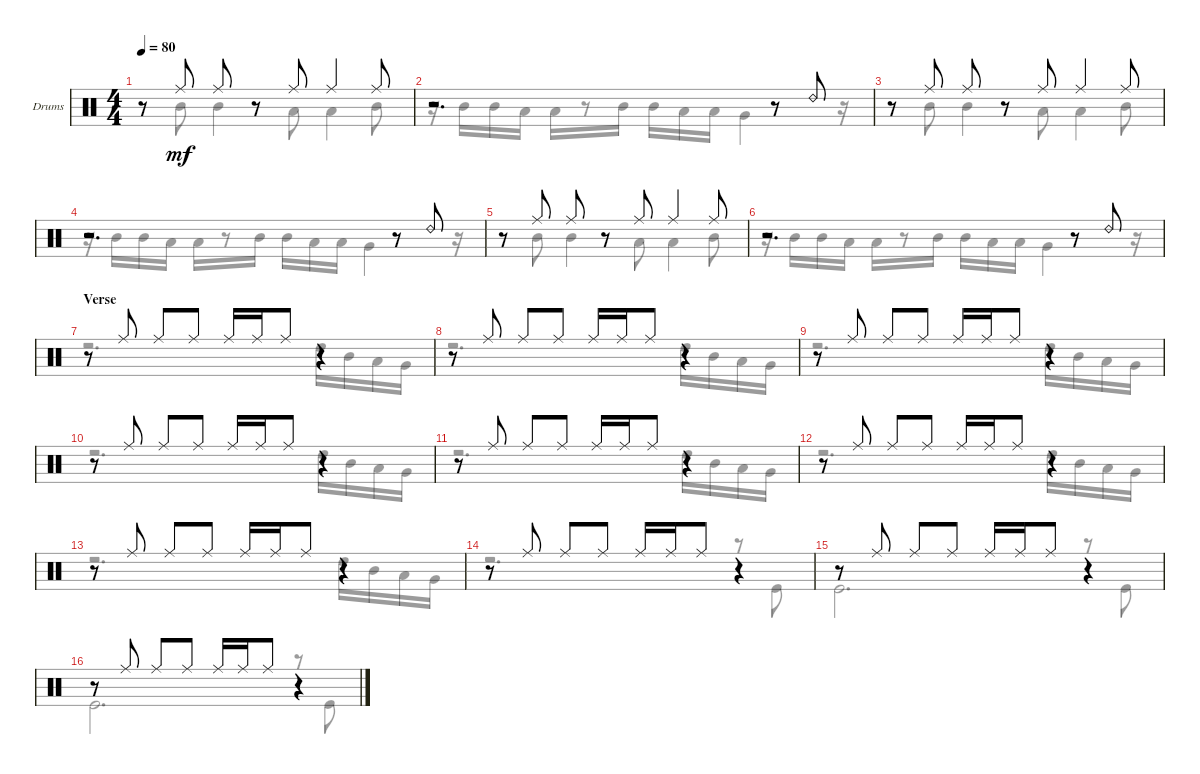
\defaultSystemsLayout 4
\bracketExtendMode groupsimilarinstruments
\firstSystemTrackNameOrientation horizontal
\otherSystemsTrackNameOrientation horizontal
\track ("Drumkit" "Drums") {instrument percussion}
\staff {score}
\articulation defaults
\voice
\ts (4 4)
\tempo 80
\clef neutral
\ks c
r.8{dy mf} "Ride (middle)".8 "Ride (middle)".8 r.8 "Ride (middle)".8 "Ride (middle)".4 "Ride (middle)".8 |
r.2{d} r.8 "Ride (bell) 2".8 |
r.8 "Ride (middle)".8 "Ride (middle)".8 r.8 "Ride (middle)".8 "Ride (middle)".4 "Ride (middle)".8 |
r.2{d} r.8 "Ride (bell) 2".8 |
r.8 "Ride (middle)".8 "Ride (middle)".8 r.8 "Ride (middle)".8 "Ride (middle)".4 "Ride (middle)".8 |
r.2{d} r.8 "Ride (bell) 2".8 |
\section ("" "Verse")
r.8 "Ride (middle)".8 "Ride (middle)".8 "Ride (middle)".8 "Ride (middle)".16 "Ride (middle)".16 "Ride (middle)".8 r.4 |
r.8 "Ride (middle)".8 "Ride (middle)".8 "Ride (middle)".8 "Ride (middle)".16 "Ride (middle)".16 "Ride (middle)".8 r.4 |
r.8 "Ride (middle)".8 "Ride (middle)".8 "Ride (middle)".8 "Ride (middle)".16 "Ride (middle)".16 "Ride (middle)".8 r.4 |
r.8 "Ride (middle)".8 "Ride (middle)".8 "Ride (middle)".8 "Ride (middle)".16 "Ride (middle)".16 "Ride (middle)".8 r.4 |
r.8 "Ride (middle)".8 "Ride (middle)".8 "Ride (middle)".8 "Ride (middle)".16 "Ride (middle)".16 "Ride (middle)".8 r.4 |
r.8 "Ride (middle)".8 "Ride (middle)".8 "Ride (middle)".8 "Ride (middle)".16 "Ride (middle)".16 "Ride (middle)".8 r.4 |
r.8 "Ride (middle)".8 "Ride (middle)".8 "Ride (middle)".8 "Ride (middle)".16 "Ride (middle)".16 "Ride (middle)".8 r.4 |
r.8 "Ride (middle)".8 "Ride (middle)".8 "Ride (middle)".8 "Ride (middle)".16 "Ride (middle)".16 "Ride (middle)".8 r.4 |
r.8 "Ride (middle)".8 "Ride (middle)".8 "Ride (middle)".8 "Ride (middle)".16 "Ride (middle)".16 "Ride (middle)".8 r.4 |
r.8 "Ride (middle)".8 "Ride (middle)".8 "Ride (middle)".8 "Ride (middle)".16 "Ride (middle)".16 "Ride (middle)".8 r.4
\voice
\clef neutral
\ottava regular
\simile none
\ks c
r.8{dy mf} "Mid Tom (hit)".8 "Mid Tom (hit)".4 "Low Tom (hit)".8 "Low Tom (hit)".4 "Mid Tom (hit)".8 |
r.16 "Mid Tom (hit)".16 "Mid Tom (hit)".16 "Low Tom (hit)".16 "Low Tom (hit)".16 r.8 "Mid Tom (hit)".16 "Mid Tom (hit)".16 "Low Tom (hit)".16 "Low Tom (hit)".16 "Very Low Tom (hit)".4 r.16 |
r.8 "Mid Tom (hit)".8 "Mid Tom (hit)".4 "Low Tom (hit)".8 "Low Tom (hit)".4 "Mid Tom (hit)".8 |
r.16 "Mid Tom (hit)".16 "Mid Tom (hit)".16 "Low Tom (hit)".16 "Low Tom (hit)".16 r.8 "Mid Tom (hit)".16 "Mid Tom (hit)".16 "Low Tom (hit)".16 "Low Tom (hit)".16 "Very Low Tom (hit)".4 r.16 |
r.8 "Mid Tom (hit)".8 "Mid Tom (hit)".4 "Low Tom (hit)".8 "Low Tom (hit)".4 "Mid Tom (hit)".8 |
r.16 "Mid Tom (hit)".16 "Mid Tom (hit)".16 "Low Tom (hit)".16 "Low Tom (hit)".16 r.8 "Mid Tom (hit)".16 "Mid Tom (hit)".16 "Low Tom (hit)".16 "Low Tom (hit)".16 "Very Low Tom (hit)".4 r.16 |
r.2{d} "High Tom (hit)".16 "Mid Tom (hit)".16 "Low Tom (hit)".16 "Very Low Tom (hit)".16 |
r.2{d} "High Tom (hit)".16 "Mid Tom (hit)".16 "Low Tom (hit)".16 "Very Low Tom (hit)".16 |
r.2{d} "High Tom (hit)".16 "Mid Tom (hit)".16 "Low Tom (hit)".16 "Very Low Tom (hit)".16 |
r.2{d} "High Tom (hit)".16 "Mid Tom (hit)".16 "Low Tom (hit)".16 "Very Low Tom (hit)".16 |
r.2{d} "High Tom (hit)".16 "Mid Tom (hit)".16 "Low Tom (hit)".16 "Very Low Tom (hit)".16 |
r.2{d} "High Tom (hit)".16 "Mid Tom (hit)".16 "Low Tom (hit)".16 "Very Low Tom (hit)".16 |
r.2{d} "High Tom (hit)".16 "Mid Tom (hit)".16 "Low Tom (hit)".16 "Very Low Tom (hit)".16 |
r.2{d} r.8 "Kick (hit)".8 |
"Kick (hit)".2{d} r.8 "Kick (hit)".8 |
"Kick (hit)".2{d} r.8 "Kick (hit)".8
